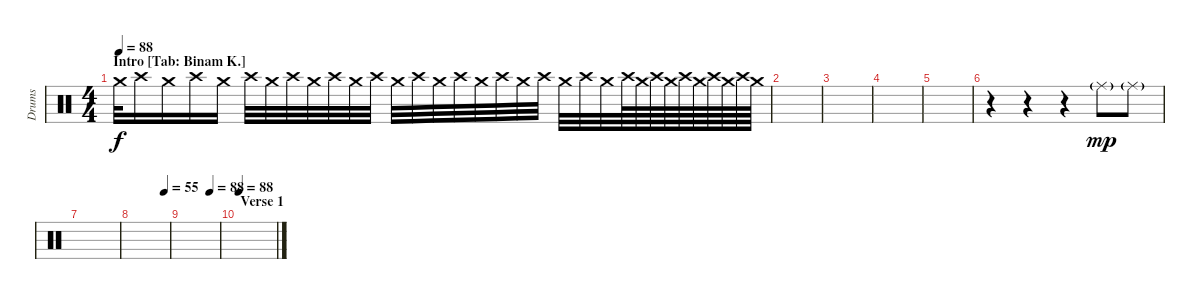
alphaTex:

\track ("Drums" "Drums") {instrument percussion}
\staff {score}
\articulation defaults
\ts (4 4)
\section ("" "Intro [Tab: Binam K.]")
\tempo 88
\clef neutral
\ks c "Crash medium (hit)".32{dy f volume 2} "Crash high (hit)".16{volume 15} "Crash medium (hit)".16 "Crash high (hit)".16 "Crash medium (hit)".16 "Crash high (hit)".32 "Crash medium (hit)".32 "Crash high (hit)".32 "Crash medium (hit)".32 "Crash high (hit)".32 "Crash medium (hit)".32 "Crash high (hit)".32 "Crash medium (hit)".32 "Crash high (hit)".32 "Crash medium (hit)".32 "Crash high (hit)".32 "Crash medium (hit)".32 "Crash high (hit)".32 "Crash medium (hit)".32 "Crash high (hit)".32 "Crash medium (hit)".32 "Crash high (hit)".32 "Crash medium (hit)".32 "Crash high (hit)".64 "Crash medium (hit)".64 "Crash high (hit)".64 "Crash medium (hit)".64 "Crash high (hit)".64 "Crash medium (hit)".64 "Crash high (hit)".64 "Crash medium (hit)".64 "Crash high (hit)".64 "Crash medium (hit)".64
|
|
|
|
|
r.4 r.4 r.4 "Ride (middle)"{g}.8{dy mp} "Ride (middle)"{g}.8 |
|
\tempo (55 0.875)
|
\tempo (88 0.75)
|
\section ("" "Verse 1")
\tempo 88
